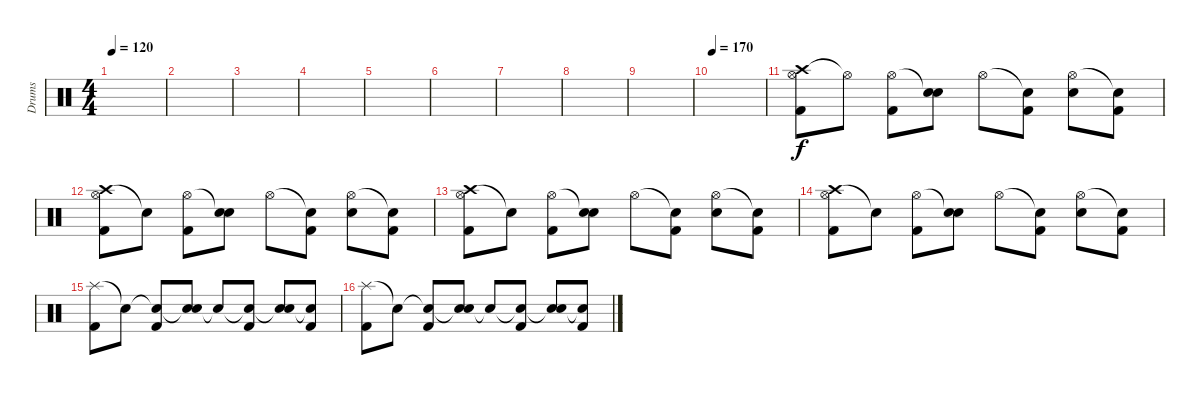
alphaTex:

\track ("Drums" "Drums") {instrument percussion}
\staff {score}
\articulation defaults
\ts (4 4)
\tempo 120
\clef neutral
\ks c
|
|
|
|
|
|
|
|
|
\tempo 170
|
("Crash high (hit)" "Hi-Hat (open)" "Kick (hit) 2").8 "Hi-Hat (open)"{t}.8 ("Hi-Hat (open)" "Kick (hit) 2").8 ("Snare (hit)"{t} "Electric Snare (hit)").8 "Hi-Hat (open)".8 ("Snare (hit)"{t} "Kick (hit) 2").8 ("Hi-Hat (open)" "Electric Snare (hit)").8 ("Snare (hit)"{t} "Kick (hit) 2").8 |
("Crash high (hit)" "Hi-Hat (open)" "Kick (hit) 2").8 "Snare (hit)"{t}.8 ("Hi-Hat (open)" "Kick (hit) 2").8 ("Snare (hit)"{t} "Electric Snare (hit)").8 "Hi-Hat (open)".8 ("Snare (hit)"{t} "Kick (hit) 2").8 ("Hi-Hat (open)" "Electric Snare (hit)").8 ("Snare (hit)"{t} "Kick (hit) 2").8 |
("Crash high (hit)" "Hi-Hat (open)" "Kick (hit) 2").8 "Snare (hit)"{t}.8 ("Hi-Hat (open)" "Kick (hit) 2").8 ("Snare (hit)"{t} "Electric Snare (hit)").8 "Hi-Hat (open)".8 ("Snare (hit)"{t} "Kick (hit) 2").8 ("Hi-Hat (open)" "Electric Snare (hit)").8 ("Snare (hit)"{t} "Kick (hit) 2").8 |
("Crash high (hit)" "Hi-Hat (open)" "Kick (hit) 2").8 "Snare (hit)"{t}.8 ("Hi-Hat (open)" "Kick (hit) 2").8 ("Snare (hit)"{t} "Electric Snare (hit)").8 "Hi-Hat (open)".8 ("Snare (hit)"{t} "Kick (hit) 2").8 ("Hi-Hat (open)" "Electric Snare (hit)").8 ("Snare (hit)"{t} "Kick (hit) 2").8 |
("Splash (hit)" "Kick (hit) 2").8 "Snare (hit)"{t}.8 ("Snare (hit)"{t} "Kick (hit) 2").8 ("Snare (hit)"{t} "Electric Snare (hit)").8 "Snare (hit)"{t}.8 ("Snare (hit)"{t} "Kick (hit) 2").8 ("Snare (hit)"{t} "Electric Snare (hit)").8 ("Snare (hit)"{t} "Kick (hit) 2").8 |
("Splash (hit)" "Kick (hit) 2").8 "Snare (hit)"{t}.8 ("Snare (hit)"{t} "Kick (hit) 2").8 ("Snare (hit)"{t} "Electric Snare (hit)").8 "Snare (hit)"{t}.8 ("Snare (hit)"{t} "Kick (hit) 2").8 ("Snare (hit)"{t} "Electric Snare (hit)").8 ("Snare (hit)"{t} "Kick (hit) 2").8
